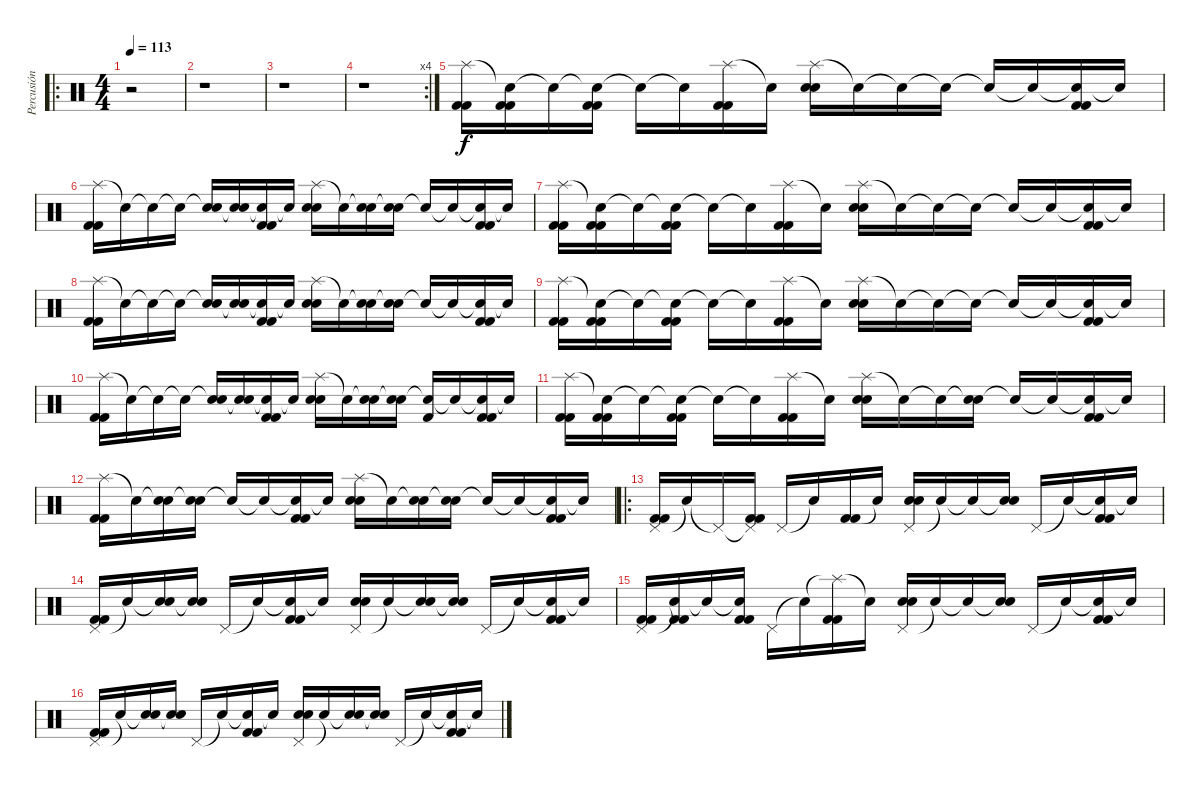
\track ("Percusión" "Percusión") {instrument percussion}
\staff {score}
\articulation defaults
\ro
\ts (4 4)
\tempo 113
\clef neutral
\ks c
r.2{dy f} |
r.1 |
r.1 |
\rc 4
r.1 |
("Splash (hit)" "Kick (hit) 2" "Kick (hit) 2").16 ("Snare (hit)"{t} "Kick (hit) 2" "Kick (hit) 2").16 "Snare (hit)"{t}.16 ("Snare (hit)"{t} "Kick (hit) 2" "Kick (hit) 2").16 "Snare (hit)"{t}.16 "Snare (hit)"{t}.16 ("Splash (hit)" "Kick (hit) 2" "Kick (hit) 2").16 "Snare (hit)"{t}.16 ("Splash (hit)" "Electric Snare (hit)" "Electric Snare (hit)").16 "Snare (hit)"{t}.16 "Snare (hit)"{t}.16 "Snare (hit)"{t}.16 "Snare (hit)"{t}.16 "Snare (hit)"{t}.16 ("Snare (hit)"{t} "Kick (hit) 2" "Kick (hit) 2").16 "Snare (hit)"{t}.16 |
("Splash (hit)" "Kick (hit) 2" "Kick (hit) 2").16 "Snare (hit)"{t}.16 "Snare (hit)"{t}.16 "Snare (hit)"{t}.16 ("Snare (hit)"{t} "Electric Snare (hit)").16 ("Snare (hit)"{t} "Electric Snare (hit)").16 ("Snare (hit)"{t} "Kick (hit) 2" "Kick (hit) 2").16 "Snare (hit)"{t}.16 ("Splash (hit)" "Electric Snare (hit)" "Electric Snare (hit)").16 "Snare (hit)"{t}.16 ("Snare (hit)"{t} "Electric Snare (hit)").16 ("Snare (hit)"{t} "Electric Snare (hit)").16 "Snare (hit)"{t}.16 "Snare (hit)"{t}.16 ("Snare (hit)"{t} "Kick (hit) 2" "Kick (hit) 2").16 "Snare (hit)"{t}.16 |
("Splash (hit)" "Kick (hit) 2" "Kick (hit) 2").16 ("Snare (hit)"{t} "Kick (hit) 2" "Kick (hit) 2").16 "Snare (hit)"{t}.16 ("Snare (hit)"{t} "Kick (hit) 2" "Kick (hit) 2").16 "Snare (hit)"{t}.16 "Snare (hit)"{t}.16 ("Splash (hit)" "Kick (hit) 2" "Kick (hit) 2").16 "Snare (hit)"{t}.16 ("Splash (hit)" "Electric Snare (hit)" "Electric Snare (hit)").16 "Snare (hit)"{t}.16 "Snare (hit)"{t}.16 "Snare (hit)"{t}.16 "Snare (hit)"{t}.16 "Snare (hit)"{t}.16 ("Snare (hit)"{t} "Kick (hit) 2" "Kick (hit) 2").16 "Snare (hit)"{t}.16 |
("Splash (hit)" "Kick (hit) 2" "Kick (hit) 2").16 "Snare (hit)"{t}.16 "Snare (hit)"{t}.16 "Snare (hit)"{t}.16 ("Snare (hit)"{t} "Electric Snare (hit)").16 ("Snare (hit)"{t} "Electric Snare (hit)").16 ("Snare (hit)"{t} "Kick (hit) 2" "Kick (hit) 2").16 "Snare (hit)"{t}.16 ("Splash (hit)" "Electric Snare (hit)" "Electric Snare (hit)").16 "Snare (hit)"{t}.16 ("Snare (hit)"{t} "Electric Snare (hit)").16 ("Snare (hit)"{t} "Electric Snare (hit)").16 "Snare (hit)"{t}.16 "Snare (hit)"{t}.16 ("Snare (hit)"{t} "Kick (hit) 2" "Kick (hit) 2").16 "Snare (hit)"{t}.16 |
("Splash (hit)" "Kick (hit) 2" "Kick (hit) 2").16 ("Snare (hit)"{t} "Kick (hit) 2" "Kick (hit) 2").16 "Snare (hit)"{t}.16 ("Snare (hit)"{t} "Kick (hit) 2" "Kick (hit) 2").16 "Snare (hit)"{t}.16 "Snare (hit)"{t}.16 ("Splash (hit)" "Kick (hit) 2" "Kick (hit) 2").16 "Snare (hit)"{t}.16 ("Splash (hit)" "Electric Snare (hit)" "Electric Snare (hit)").16 "Snare (hit)"{t}.16 "Snare (hit)"{t}.16 "Snare (hit)"{t}.16 "Snare (hit)"{t}.16 "Snare (hit)"{t}.16 ("Snare (hit)"{t} "Kick (hit) 2" "Kick (hit) 2").16 "Snare (hit)"{t}.16 |
("Splash (hit)" "Kick (hit) 2" "Kick (hit) 2").16 "Snare (hit)"{t}.16 "Snare (hit)"{t}.16 "Snare (hit)"{t}.16 ("Snare (hit)"{t} "Electric Snare (hit)").16 ("Snare (hit)"{t} "Electric Snare (hit)").16 ("Snare (hit)"{t} "Kick (hit) 2" "Kick (hit) 2").16 "Snare (hit)"{t}.16 ("Splash (hit)" "Electric Snare (hit)" "Electric Snare (hit)").16 "Snare (hit)"{t}.16 ("Snare (hit)"{t} "Electric Snare (hit)").16 ("Snare (hit)"{t} "Electric Snare (hit)").16 ("Snare (hit)"{t} "Kick (hit) 2").16 "Snare (hit)"{t}.16 ("Snare (hit)"{t} "Kick (hit) 2" "Kick (hit) 2").16 "Snare (hit)"{t}.16 |
("Splash (hit)" "Kick (hit) 2" "Kick (hit) 2").16 ("Snare (hit)"{t} "Kick (hit) 2" "Kick (hit) 2").16 "Snare (hit)"{t}.16 ("Snare (hit)"{t} "Kick (hit) 2" "Kick (hit) 2").16 "Snare (hit)"{t}.16 "Snare (hit)"{t}.16 ("Splash (hit)" "Kick (hit) 2" "Kick (hit) 2").16 "Snare (hit)"{t}.16 ("Splash (hit)" "Electric Snare (hit)" "Electric Snare (hit)").16 "Snare (hit)"{t}.16 "Snare (hit)"{t}.16 ("Snare (hit)"{t} "Electric Snare (hit)").16 "Snare (hit)"{t}.16 "Snare (hit)"{t}.16 ("Snare (hit)"{t} "Kick (hit) 2" "Kick (hit) 2").16 "Snare (hit)"{t}.16 |
("Splash (hit)" "Kick (hit) 2" "Kick (hit) 2").16 "Snare (hit)"{t}.16 ("Snare (hit)"{t} "Electric Snare (hit)").16 ("Snare (hit)"{t} "Electric Snare (hit)").16 "Snare (hit)"{t}.16 "Snare (hit)"{t}.16 ("Snare (hit)"{t} "Kick (hit) 2" "Kick (hit) 2").16 "Snare (hit)"{t}.16 ("Splash (hit)" "Electric Snare (hit)" "Electric Snare (hit)").16 "Snare (hit)"{t}.16 ("Snare (hit)"{t} "Electric Snare (hit)").16 ("Snare (hit)"{t} "Electric Snare (hit)").16 "Snare (hit)"{t}.16 "Snare (hit)"{t}.16 ("Snare (hit)"{t} "Kick (hit) 2" "Kick (hit) 2").16 "Snare (hit)"{t}.16 |
\ro
("Pedal Hi-Hat (hit)" "Kick (hit) 2" "Kick (hit) 2").16 "Snare (hit)"{t}.16 "Pedal Hi-Hat (hit)"{t}.16 ("Pedal Hi-Hat (hit)"{t} "Kick (hit) 2" "Kick (hit) 2").16 "Pedal Hi-Hat (hit)".16 "Snare (hit)"{t}.16 ("Kick (hit) 2" "Kick (hit) 2").16 "Snare (hit)"{t}.16 ("Pedal Hi-Hat (hit)" "Electric Snare (hit)" "Electric Snare (hit)").16 "Snare (hit)"{t}.16 "Snare (hit)"{t}.16 ("Snare (hit)"{t} "Electric Snare (hit)").16 "Pedal Hi-Hat (hit)".16 "Snare (hit)"{t}.16 ("Snare (hit)"{t} "Kick (hit) 2" "Kick (hit) 2").16 "Snare (hit)"{t}.16 |
("Pedal Hi-Hat (hit)" "Kick (hit) 2" "Kick (hit) 2").16 "Snare (hit)"{t}.16 ("Snare (hit)"{t} "Electric Snare (hit)").16 ("Snare (hit)"{t} "Electric Snare (hit)").16 "Pedal Hi-Hat (hit)".16 "Snare (hit)"{t}.16 ("Snare (hit)"{t} "Kick (hit) 2" "Kick (hit) 2").16 "Snare (hit)"{t}.16 ("Pedal Hi-Hat (hit)" "Electric Snare (hit)" "Electric Snare (hit)").16 "Snare (hit)"{t}.16 ("Snare (hit)"{t} "Electric Snare (hit)").16 ("Snare (hit)"{t} "Electric Snare (hit)").16 "Pedal Hi-Hat (hit)".16 "Snare (hit)"{t}.16 ("Snare (hit)"{t} "Kick (hit) 2" "Kick (hit) 2").16 "Snare (hit)"{t}.16 |
("Pedal Hi-Hat (hit)" "Kick (hit) 2" "Kick (hit) 2").16 ("Snare (hit)"{t} "Kick (hit) 2" "Kick (hit) 2").16 "Snare (hit)"{t}.16 ("Snare (hit)"{t} "Kick (hit) 2" "Kick (hit) 2").16 "Pedal Hi-Hat (hit)".16 "Snare (hit)"{t}.16 ("Splash (hit)"{t} "Kick (hit) 2" "Kick (hit) 2").16 "Snare (hit)"{t}.16 ("Pedal Hi-Hat (hit)" "Electric Snare (hit)" "Electric Snare (hit)").16 "Snare (hit)"{t}.16 "Snare (hit)"{t}.16 ("Snare (hit)"{t} "Electric Snare (hit)").16 "Pedal Hi-Hat (hit)".16 "Snare (hit)"{t}.16 ("Snare (hit)"{t} "Kick (hit) 2" "Kick (hit) 2").16 "Snare (hit)"{t}.16 |
("Pedal Hi-Hat (hit)" "Kick (hit) 2" "Kick (hit) 2").16 "Snare (hit)"{t}.16 ("Snare (hit)"{t} "Electric Snare (hit)").16 ("Snare (hit)"{t} "Electric Snare (hit)").16 "Pedal Hi-Hat (hit)".16 "Snare (hit)"{t}.16 ("Snare (hit)"{t} "Kick (hit) 2" "Kick (hit) 2").16 "Snare (hit)"{t}.16 ("Pedal Hi-Hat (hit)" "Electric Snare (hit)" "Electric Snare (hit)").16 "Snare (hit)"{t}.16 ("Snare (hit)"{t} "Electric Snare (hit)").16 ("Snare (hit)"{t} "Electric Snare (hit)").16 "Pedal Hi-Hat (hit)".16 "Snare (hit)"{t}.16 ("Snare (hit)"{t} "Kick (hit) 2" "Kick (hit) 2").16 "Snare (hit)"{t}.16
